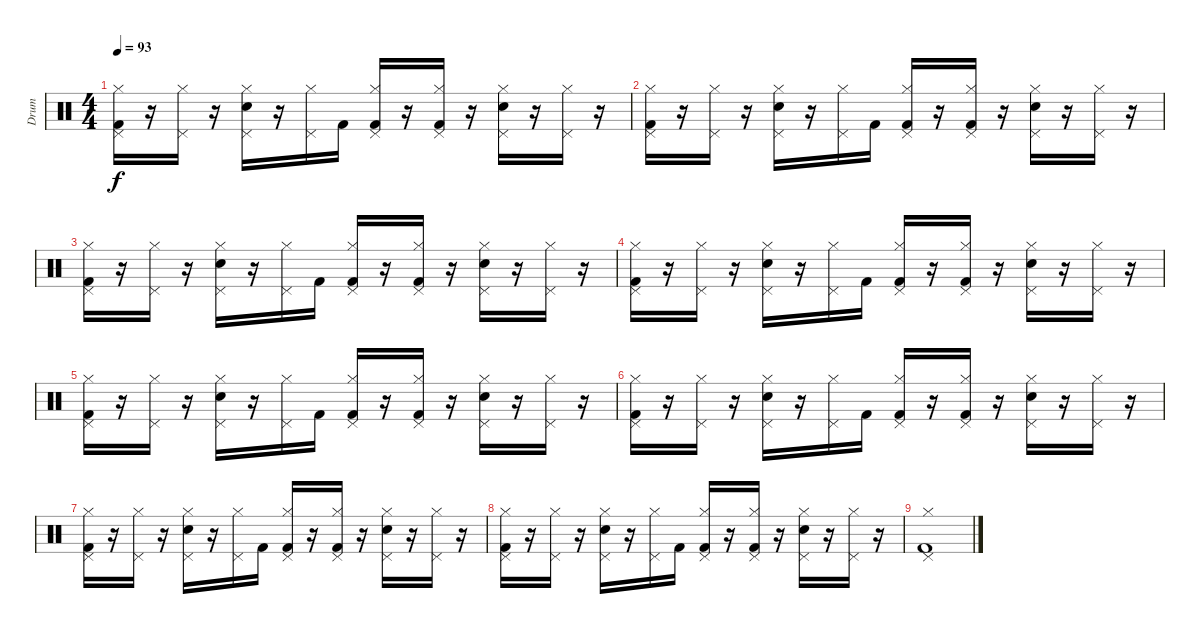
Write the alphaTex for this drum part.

\track ("Drum" "Drum") {instrument percussion}
\staff {score}
\articulation defaults
\ts (4 4)
\tempo 93
\clef neutral
\ks c
("Kick (hit) 2" "Hi-Hat (closed)" "Pedal Hi-Hat (hit)").16{dy f} r.16 ("Hi-Hat (closed)" "Pedal Hi-Hat (hit)").16 r.16 ("Snare (hit) 2" "Hi-Hat (closed)" "Pedal Hi-Hat (hit)").16 r.16 ("Hi-Hat (closed)" "Pedal Hi-Hat (hit)").16 "Kick (hit) 2".16 ("Kick (hit) 2" "Hi-Hat (closed)" "Pedal Hi-Hat (hit)").16 r.16 ("Kick (hit) 2" "Hi-Hat (closed)" "Pedal Hi-Hat (hit)").16 r.16 ("Snare (hit) 2" "Hi-Hat (closed)" "Pedal Hi-Hat (hit)").16 r.16 ("Hi-Hat (closed)" "Pedal Hi-Hat (hit)").16 r.16 |
("Kick (hit) 2" "Hi-Hat (closed)" "Pedal Hi-Hat (hit)").16 r.16 ("Hi-Hat (closed)" "Pedal Hi-Hat (hit)").16 r.16 ("Snare (hit) 2" "Hi-Hat (closed)" "Pedal Hi-Hat (hit)").16 r.16 ("Hi-Hat (closed)" "Pedal Hi-Hat (hit)").16 "Kick (hit) 2".16 ("Kick (hit) 2" "Hi-Hat (closed)" "Pedal Hi-Hat (hit)").16 r.16 ("Kick (hit) 2" "Hi-Hat (closed)" "Pedal Hi-Hat (hit)").16 r.16 ("Snare (hit) 2" "Hi-Hat (closed)" "Pedal Hi-Hat (hit)").16 r.16 ("Hi-Hat (closed)" "Pedal Hi-Hat (hit)").16 r.16 |
("Kick (hit) 2" "Hi-Hat (closed)" "Pedal Hi-Hat (hit)").16 r.16 ("Hi-Hat (closed)" "Pedal Hi-Hat (hit)").16 r.16 ("Snare (hit) 2" "Hi-Hat (closed)" "Pedal Hi-Hat (hit)").16 r.16 ("Hi-Hat (closed)" "Pedal Hi-Hat (hit)").16 "Kick (hit) 2".16 ("Kick (hit) 2" "Hi-Hat (closed)" "Pedal Hi-Hat (hit)").16 r.16 ("Kick (hit) 2" "Hi-Hat (closed)" "Pedal Hi-Hat (hit)").16 r.16 ("Snare (hit) 2" "Hi-Hat (closed)" "Pedal Hi-Hat (hit)").16 r.16 ("Hi-Hat (closed)" "Pedal Hi-Hat (hit)").16 r.16 |
("Kick (hit) 2" "Hi-Hat (closed)" "Pedal Hi-Hat (hit)").16 r.16 ("Hi-Hat (closed)" "Pedal Hi-Hat (hit)").16 r.16 ("Snare (hit) 2" "Hi-Hat (closed)" "Pedal Hi-Hat (hit)").16 r.16 ("Hi-Hat (closed)" "Pedal Hi-Hat (hit)").16 "Kick (hit) 2".16 ("Kick (hit) 2" "Hi-Hat (closed)" "Pedal Hi-Hat (hit)").16 r.16 ("Kick (hit) 2" "Hi-Hat (closed)" "Pedal Hi-Hat (hit)").16 r.16 ("Snare (hit) 2" "Hi-Hat (closed)" "Pedal Hi-Hat (hit)").16 r.16 ("Hi-Hat (closed)" "Pedal Hi-Hat (hit)").16 r.16 |
("Kick (hit) 2" "Hi-Hat (closed)" "Pedal Hi-Hat (hit)").16 r.16 ("Hi-Hat (closed)" "Pedal Hi-Hat (hit)").16 r.16 ("Snare (hit) 2" "Hi-Hat (closed)" "Pedal Hi-Hat (hit)").16 r.16 ("Hi-Hat (closed)" "Pedal Hi-Hat (hit)").16 "Kick (hit) 2".16 ("Kick (hit) 2" "Hi-Hat (closed)" "Pedal Hi-Hat (hit)").16 r.16 ("Kick (hit) 2" "Hi-Hat (closed)" "Pedal Hi-Hat (hit)").16 r.16 ("Snare (hit) 2" "Hi-Hat (closed)" "Pedal Hi-Hat (hit)").16 r.16 ("Hi-Hat (closed)" "Pedal Hi-Hat (hit)").16 r.16 |
("Kick (hit) 2" "Hi-Hat (closed)" "Pedal Hi-Hat (hit)").16 r.16 ("Hi-Hat (closed)" "Pedal Hi-Hat (hit)").16 r.16 ("Snare (hit) 2" "Hi-Hat (closed)" "Pedal Hi-Hat (hit)").16 r.16 ("Hi-Hat (closed)" "Pedal Hi-Hat (hit)").16 "Kick (hit) 2".16 ("Kick (hit) 2" "Hi-Hat (closed)" "Pedal Hi-Hat (hit)").16 r.16 ("Kick (hit) 2" "Hi-Hat (closed)" "Pedal Hi-Hat (hit)").16 r.16 ("Snare (hit) 2" "Hi-Hat (closed)" "Pedal Hi-Hat (hit)").16 r.16 ("Hi-Hat (closed)" "Pedal Hi-Hat (hit)").16 r.16 |
("Kick (hit) 2" "Hi-Hat (closed)" "Pedal Hi-Hat (hit)").16 r.16 ("Hi-Hat (closed)" "Pedal Hi-Hat (hit)").16 r.16 ("Snare (hit) 2" "Hi-Hat (closed)" "Pedal Hi-Hat (hit)").16 r.16 ("Hi-Hat (closed)" "Pedal Hi-Hat (hit)").16 "Kick (hit) 2".16 ("Kick (hit) 2" "Hi-Hat (closed)" "Pedal Hi-Hat (hit)").16 r.16 ("Kick (hit) 2" "Hi-Hat (closed)" "Pedal Hi-Hat (hit)").16 r.16 ("Snare (hit) 2" "Hi-Hat (closed)" "Pedal Hi-Hat (hit)").16 r.16 ("Hi-Hat (closed)" "Pedal Hi-Hat (hit)").16 r.16 |
("Kick (hit) 2" "Hi-Hat (closed)" "Pedal Hi-Hat (hit)").16 r.16 ("Hi-Hat (closed)" "Pedal Hi-Hat (hit)").16 r.16 ("Snare (hit) 2" "Hi-Hat (closed)" "Pedal Hi-Hat (hit)").16 r.16 ("Hi-Hat (closed)" "Pedal Hi-Hat (hit)").16 "Kick (hit) 2".16 ("Kick (hit) 2" "Hi-Hat (closed)" "Pedal Hi-Hat (hit)").16 r.16 ("Kick (hit) 2" "Hi-Hat (closed)" "Pedal Hi-Hat (hit)").16 r.16 ("Snare (hit) 2" "Hi-Hat (closed)" "Pedal Hi-Hat (hit)").16 r.16 ("Hi-Hat (closed)" "Pedal Hi-Hat (hit)").16 r.16 |
("Kick (hit) 2" "Hi-Hat (closed)" "Pedal Hi-Hat (hit)").1
